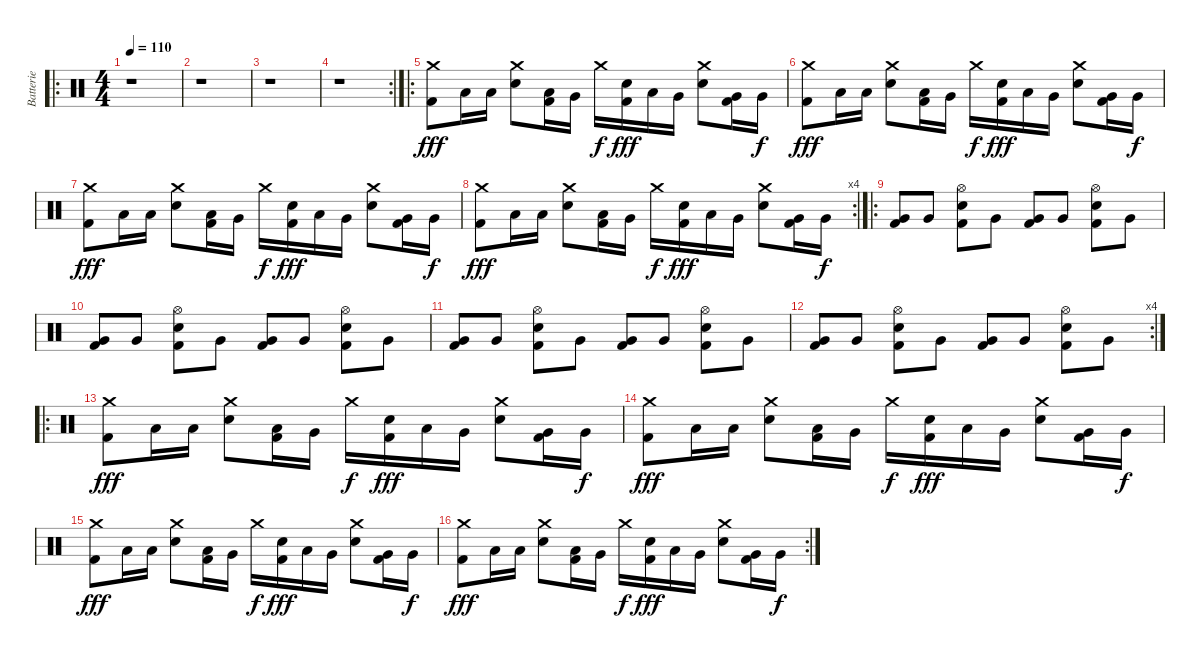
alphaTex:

\track ("Batterie" "Batterie") {instrument percussion}
\staff {score}
\articulation defaults
\ro
\ts (4 4)
\tempo 110
\clef neutral
\ks c
r.1{dy fff} |
r.1 |
r.1 |
\rc 2
r.1 |
\ro
("Crash medium (hit)" "Kick (hit) 2").8 "Low Tom (hit)".16 "Low Tom (hit)".16 ("Crash medium (hit)" "Snare (hit) 2").8 ("Low Tom (hit)" "Kick (hit) 2").16 "Very Low Tom (hit)".16 "Crash medium (hit)".16{dy f} ("Snare (hit) 2" "Kick (hit) 2").16{dy fff} "Low Tom (hit)".16 "Very Low Tom (hit)".16 ("Crash medium (hit)" "Snare (hit) 2").8 ("Very Low Tom (hit)" "Kick (hit) 2").16 "Very Low Tom (hit)".16{dy f} |
("Crash medium (hit)" "Kick (hit) 2").8{dy fff} "Low Tom (hit)".16 "Low Tom (hit)".16 ("Crash medium (hit)" "Snare (hit) 2").8 ("Low Tom (hit)" "Kick (hit) 2").16 "Very Low Tom (hit)".16 "Crash medium (hit)".16{dy f} ("Snare (hit) 2" "Kick (hit) 2").16{dy fff} "Low Tom (hit)".16 "Very Low Tom (hit)".16 ("Crash medium (hit)" "Snare (hit) 2").8 ("Very Low Tom (hit)" "Kick (hit) 2").16 "Very Low Tom (hit)".16{dy f} |
("Crash medium (hit)" "Kick (hit) 2").8{dy fff} "Low Tom (hit)".16 "Low Tom (hit)".16 ("Crash medium (hit)" "Snare (hit) 2").8 ("Low Tom (hit)" "Kick (hit) 2").16 "Very Low Tom (hit)".16 "Crash medium (hit)".16{dy f} ("Snare (hit) 2" "Kick (hit) 2").16{dy fff} "Low Tom (hit)".16 "Very Low Tom (hit)".16 ("Crash medium (hit)" "Snare (hit) 2").8 ("Very Low Tom (hit)" "Kick (hit) 2").16 "Very Low Tom (hit)".16{dy f} |
\rc 4
("Crash medium (hit)" "Kick (hit) 2").8{dy fff} "Low Tom (hit)".16 "Low Tom (hit)".16 ("Crash medium (hit)" "Snare (hit) 2").8 ("Low Tom (hit)" "Kick (hit) 2").16 "Very Low Tom (hit)".16 "Crash medium (hit)".16{dy f} ("Snare (hit) 2" "Kick (hit) 2").16{dy fff} "Low Tom (hit)".16 "Very Low Tom (hit)".16 ("Crash medium (hit)" "Snare (hit) 2").8 ("Very Low Tom (hit)" "Kick (hit) 2").16 "Very Low Tom (hit)".16{dy f} |
\ro
("Very Low Tom (hit)" "Kick (hit) 2").8 "Very Low Tom (hit)".8 ("Hi-Hat (open)" "Snare (hit) 2" "Kick (hit) 2").8 "Very Low Tom (hit)".8 ("Very Low Tom (hit)" "Kick (hit) 2").8 "Very Low Tom (hit)".8 ("Hi-Hat (open)" "Snare (hit) 2" "Kick (hit) 2").8 "Very Low Tom (hit)".8 |
("Very Low Tom (hit)" "Kick (hit) 2").8 "Very Low Tom (hit)".8 ("Hi-Hat (open)" "Snare (hit) 2" "Kick (hit) 2").8 "Very Low Tom (hit)".8 ("Very Low Tom (hit)" "Kick (hit) 2").8 "Very Low Tom (hit)".8 ("Hi-Hat (open)" "Snare (hit) 2" "Kick (hit) 2").8 "Very Low Tom (hit)".8 |
("Very Low Tom (hit)" "Kick (hit) 2").8 "Very Low Tom (hit)".8 ("Hi-Hat (open)" "Snare (hit) 2" "Kick (hit) 2").8 "Very Low Tom (hit)".8 ("Very Low Tom (hit)" "Kick (hit) 2").8 "Very Low Tom (hit)".8 ("Hi-Hat (open)" "Snare (hit) 2" "Kick (hit) 2").8 "Very Low Tom (hit)".8 |
\rc 4
("Very Low Tom (hit)" "Kick (hit) 2").8 "Very Low Tom (hit)".8 ("Hi-Hat (open)" "Snare (hit) 2" "Kick (hit) 2").8 "Very Low Tom (hit)".8 ("Very Low Tom (hit)" "Kick (hit) 2").8 "Very Low Tom (hit)".8 ("Hi-Hat (open)" "Snare (hit) 2" "Kick (hit) 2").8 "Very Low Tom (hit)".8 |
\ro
("Crash medium (hit)" "Kick (hit) 2").8{dy fff} "Low Tom (hit)".16 "Low Tom (hit)".16 ("Crash medium (hit)" "Snare (hit) 2").8 ("Low Tom (hit)" "Kick (hit) 2").16 "Very Low Tom (hit)".16 "Crash medium (hit)".16{dy f} ("Snare (hit) 2" "Kick (hit) 2").16{dy fff} "Low Tom (hit)".16 "Very Low Tom (hit)".16 ("Crash medium (hit)" "Snare (hit) 2").8 ("Very Low Tom (hit)" "Kick (hit) 2").16 "Very Low Tom (hit)".16{dy f} |
("Crash medium (hit)" "Kick (hit) 2").8{dy fff} "Low Tom (hit)".16 "Low Tom (hit)".16 ("Crash medium (hit)" "Snare (hit) 2").8 ("Low Tom (hit)" "Kick (hit) 2").16 "Very Low Tom (hit)".16 "Crash medium (hit)".16{dy f} ("Snare (hit) 2" "Kick (hit) 2").16{dy fff} "Low Tom (hit)".16 "Very Low Tom (hit)".16 ("Crash medium (hit)" "Snare (hit) 2").8 ("Very Low Tom (hit)" "Kick (hit) 2").16 "Very Low Tom (hit)".16{dy f} |
("Crash medium (hit)" "Kick (hit) 2").8{dy fff} "Low Tom (hit)".16 "Low Tom (hit)".16 ("Crash medium (hit)" "Snare (hit) 2").8 ("Low Tom (hit)" "Kick (hit) 2").16 "Very Low Tom (hit)".16 "Crash medium (hit)".16{dy f} ("Snare (hit) 2" "Kick (hit) 2").16{dy fff} "Low Tom (hit)".16 "Very Low Tom (hit)".16 ("Crash medium (hit)" "Snare (hit) 2").8 ("Very Low Tom (hit)" "Kick (hit) 2").16 "Very Low Tom (hit)".16{dy f} |
\rc 2
("Crash medium (hit)" "Kick (hit) 2").8{dy fff} "Low Tom (hit)".16 "Low Tom (hit)".16 ("Crash medium (hit)" "Snare (hit) 2").8 ("Low Tom (hit)" "Kick (hit) 2").16 "Very Low Tom (hit)".16 "Crash medium (hit)".16{dy f} ("Snare (hit) 2" "Kick (hit) 2").16{dy fff} "Low Tom (hit)".16 "Very Low Tom (hit)".16 ("Crash medium (hit)" "Snare (hit) 2").8 ("Very Low Tom (hit)" "Kick (hit) 2").16 "Very Low Tom (hit)".16{dy f}
